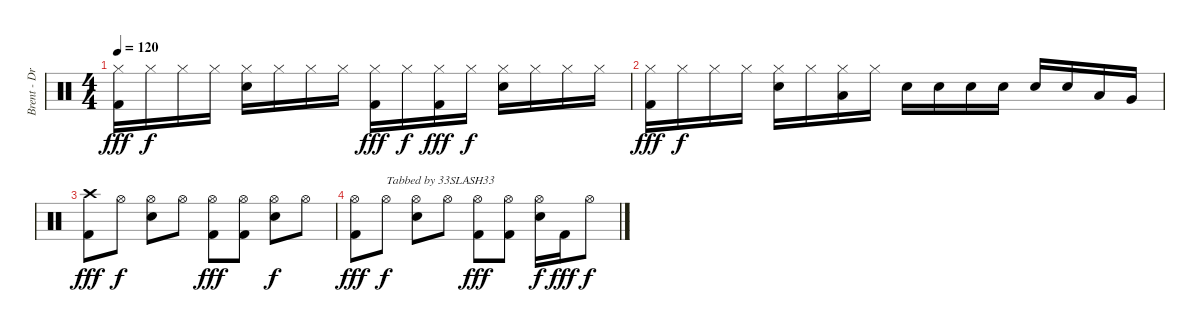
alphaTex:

\track ("Brent - Drums" "Brent - Dr") {instrument percussion}
\staff {score}
\articulation defaults
\ts (4 4)
\tempo 120
\clef neutral
\ks c
("Hi-Hat (closed)" "Kick (hit) 2").16{dy fff} "Hi-Hat (closed)".16{dy f} "Hi-Hat (closed)".16 "Hi-Hat (closed)".16 ("Hi-Hat (closed)" "Snare (hit) 2").16 "Hi-Hat (closed)".16 "Hi-Hat (closed)".16 "Hi-Hat (closed)".16 ("Hi-Hat (closed)" "Kick (hit) 2").16{dy fff} "Hi-Hat (closed)".16{dy f} ("Hi-Hat (closed)" "Kick (hit) 2").16{dy fff} "Hi-Hat (closed)".16{dy f} ("Hi-Hat (closed)" "Snare (hit) 2").16 "Hi-Hat (closed)".16 "Hi-Hat (closed)".16 "Hi-Hat (closed)".16 |
("Hi-Hat (closed)" "Kick (hit) 2").16{dy fff} "Hi-Hat (closed)".16{dy f} "Hi-Hat (closed)".16 "Hi-Hat (closed)".16 ("Hi-Hat (closed)" "Snare (hit) 2").16 "Hi-Hat (closed)".16 ("Hi-Hat (closed)" "Low Tom (hit)").16 "Hi-Hat (closed)".16 "Snare (hit) 2".16 "Snare (hit) 2".16 "Snare (hit) 2".16 "Snare (hit) 2".16 "Snare (hit) 2".16 "Snare (hit) 2".16 "Low Tom (hit)".16 "Very Low Tom (hit)".16 |
("Crash high (hit)" "Kick (hit) 2").8{dy fff} "Hi-Hat (open)".8{dy f} ("Hi-Hat (open)" "Snare (hit) 2").8 "Hi-Hat (open)".8 ("Hi-Hat (open)" "Kick (hit) 2").8{dy fff} ("Hi-Hat (open)" "Kick (hit) 2").8 ("Hi-Hat (open)" "Snare (hit) 2").8{dy f} "Hi-Hat (open)".8 |
("Hi-Hat (open)" "Kick (hit) 2").8{dy fff} "Hi-Hat (open)".8{txt "Tabbed by 33SLASH33" dy f} ("Hi-Hat (open)" "Snare (hit) 2").8 "Hi-Hat (open)".8 ("Hi-Hat (open)" "Kick (hit) 2").8{dy fff} ("Hi-Hat (open)" "Kick (hit) 2").8 ("Hi-Hat (open)" "Snare (hit) 2").16{dy f} "Kick (hit) 2".16{dy fff} "Hi-Hat (open)".8{dy f}
